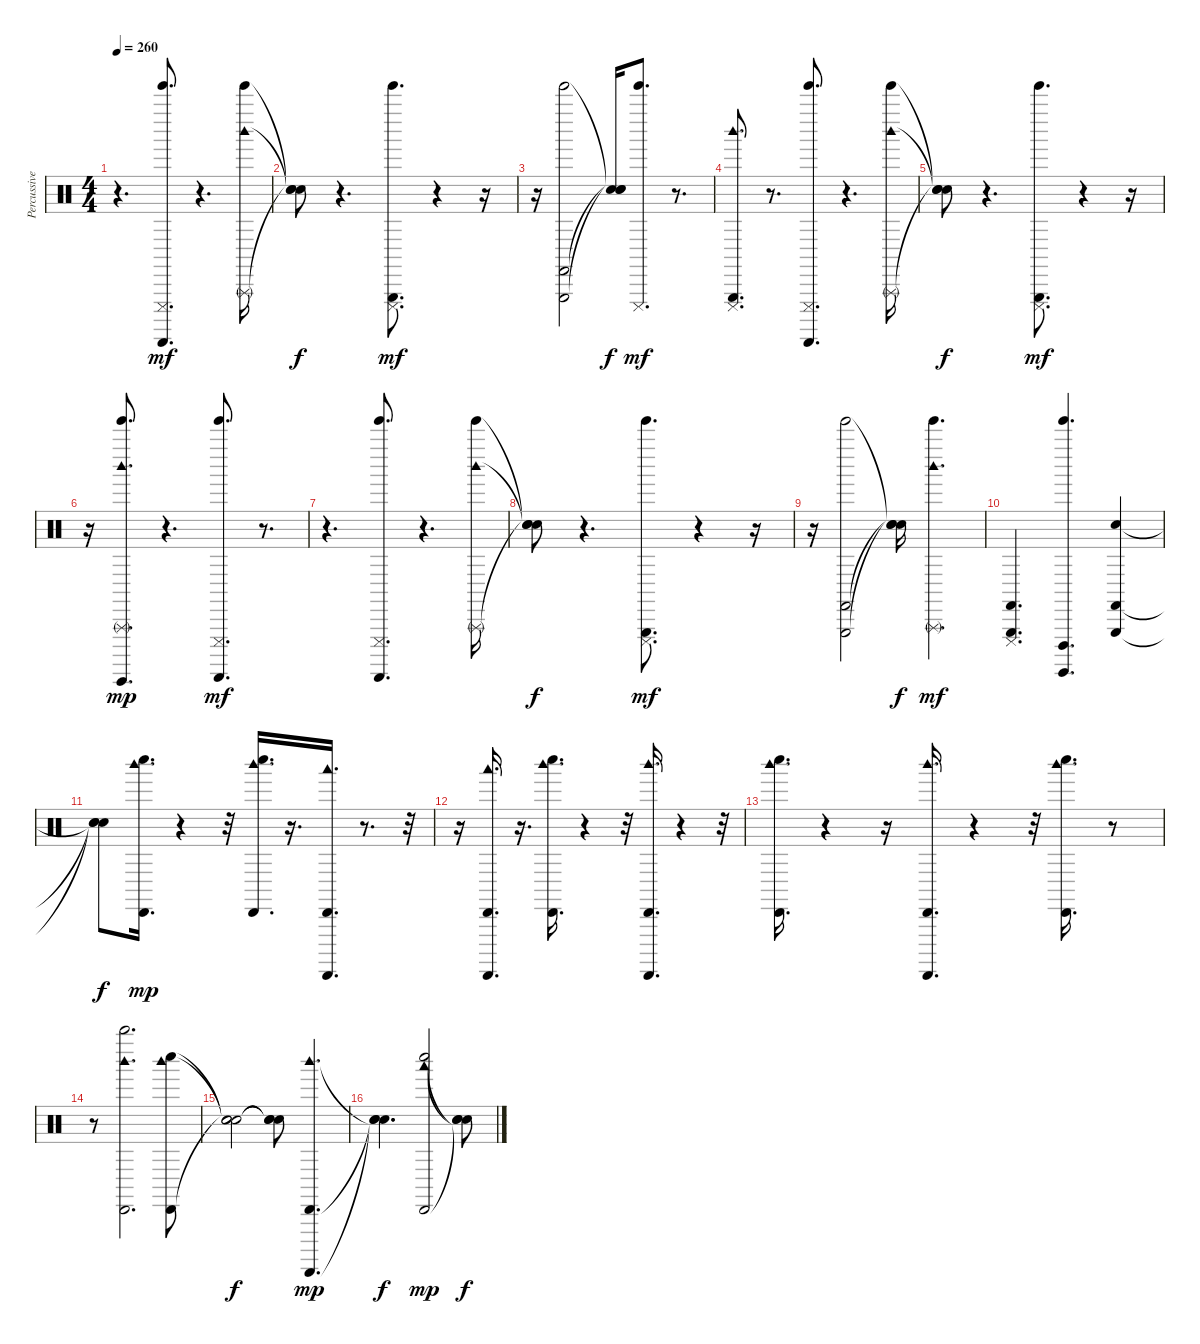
\track ("Percussive Organ" "Percussive") {instrument percussion}
\staff {score}
\articulation defaults
\ts (4 4)
\tempo 260
\clef neutral
\ks c
r.4{d dy mf} ("Guiro (scrap-return)" "Tinkle Bell (hit)" "Cuica (mute)").8{d} r.4{d} ("Woodblock high (hit)" "Tinkle Bell (hit)" "Triangle (rnute)").16 |
("Snare (hit)"{t} "Snare (hit)"{t} "Snare (hit)"{t}).8{dy f} r.4{d} ("Cuica (mute)" "Tinkle Bell (hit)" "Triangle (hit)").8{d dy mf} r.4 r.16 |
r.16 ("Triangle (hit)" "Castanets (hit)" "Tinkle Bell (hit)").2 ("Snare (hit)"{t} "Snare (hit)"{t} "Snare (hit)"{t}).16{dy f} ("Cuica (mute)" "Tinkle Bell (hit)").8{d dy mf} r.8{d} |
("Woodblock high (hit)" "Triangle (hit)" "Cuica (mute)").8{d} r.8{d} ("Guiro (scrap-return)" "Tinkle Bell (hit)" "Cuica (mute)").8{d} r.4{d} ("Woodblock high (hit)" "Tinkle Bell (hit)" "Triangle (rnute)").16 |
("Snare (hit)"{t} "Snare (hit)"{t} "Snare (hit)"{t}).8{dy f} r.4{d} ("Cuica (mute)" "Tinkle Bell (hit)" "Triangle (hit)").8{d dy mf} r.4 r.16 |
r.16 ("Guiro (hit)" "Tinkle Bell (hit)" "Triangle (rnute)" "Woodblock high (hit)").8{d dy mp} r.4{d} ("Guiro (scrap-return)" "Tinkle Bell (hit)" "Cuica (mute)").8{d dy mf} r.8{d} |
r.4{d} ("Guiro (scrap-return)" "Tinkle Bell (hit)" "Cuica (mute)").8{d} r.4{d} ("Woodblock high (hit)" "Tinkle Bell (hit)" "Triangle (rnute)").16 |
("Snare (hit)"{t} "Snare (hit)"{t} "Snare (hit)"{t}).8{dy f} r.4{d} ("Cuica (mute)" "Tinkle Bell (hit)" "Triangle (hit)").8{d dy mf} r.4 r.16 |
r.16 ("Triangle (hit)" "Castanets (hit)" "Tinkle Bell (hit)").2 ("Snare (hit)"{t} "Snare (hit)"{t} "Snare (hit)"{t}).16{dy f} ("Woodblock high (hit)" "Tinkle Bell (hit)" "Triangle (rnute)").4{d dy mf} |
("Cuica (mute)" "Castanets (hit)" "Triangle (hit)").4{d} ("Cuica (open)" "Surdo (hit)" "Tinkle Bell (hit)").4{d} ("Triangle (hit)" "Snare (hit)" "Castanets (hit)").4 |
("Snare (hit)"{t} "Snare (hit)"{t} "Snare (hit)"{t}).8{dy f} ("Cabasa (hit)" "Woodblock high (hit)" "Whistle low (hit)").16{d dy mp} r.4 r.32 ("Cabasa (hit)" "Woodblock high (hit)" "Whistle low (hit)").16{d} r.16{d} ("Cabasa (hit)" "Woodblock low (hit)" "Guiro (scrap-return)").16{d} r.8{d} r.32 |
r.16 ("Cabasa (hit)" "Woodblock low (hit)" "Guiro (scrap-return)").16{d} r.16{d} ("Cabasa (hit)" "Woodblock high (hit)" "Whistle low (hit)").16{d} r.4 r.32 ("Cabasa (hit)" "Guiro (scrap-return)" "Woodblock high (hit)").16{d} r.4 r.32 |
("Cabasa (hit)" "Woodblock high (hit)" "Whistle low (hit)").16{d} r.4 r.16 ("Cabasa (hit)" "Guiro (scrap-return)" "Woodblock high (hit)").16{d} r.4 r.32 ("Cabasa (hit)" "Woodblock high (hit)" "Whistle low (hit)").16{d} r.8 |
r.8 ("Cabasa (hit)" "Woodblock high (hit)" "Whistle high (hit)").2{d} ("Cabasa (hit)" "Woodblock high (hit)" "Whistle low (hit)").8 |
("Snare (hit)"{t} "Snare (hit)"{t} "Snare (hit)"{t}).2{dy f} ("Snare (hit)"{t} "Snare (hit)"{t} "Snare (hit)"{t}).8 ("Cabasa (hit)" "Woodblock high (hit)" "Guiro (scrap-return)").4{d dy mp} |
("Snare (hit)"{t} "Snare (hit)"{t} "Snare (hit)"{t}).4{d dy f} ("Cabasa (hit)" "Whistle low (hit)" "Woodblock low (hit)").2{dy mp} ("Snare (hit)"{t} "Snare (hit)"{t} "Snare (hit)"{t}).8{dy f}
